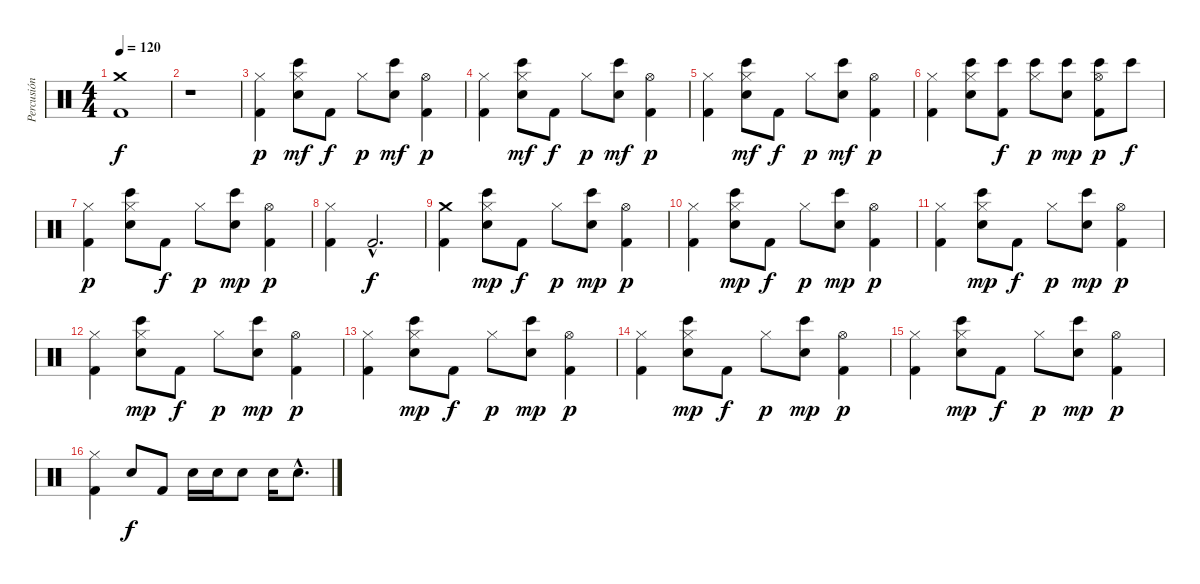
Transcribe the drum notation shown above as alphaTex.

\track ("Percusión" "Percusión") {instrument percussion}
\staff {score}
\articulation defaults
\ts (4 4)
\tempo 120
\clef neutral
\ks c
("Kick (hit) 2" "Crash medium (hit)").1{dy f} |
r.1 |
("Kick (hit) 2" "Hi-Hat (closed)").4{dy p} ("Electric Snare (hit)" "Hi-Hat (closed)" "Bongo High (hit)").8{dy mf} "Kick (hit) 2".8{dy f} "Hi-Hat (closed)".8{dy p} ("Electric Snare (hit)" "Bongo High (hit)").8{dy mf} ("Kick (hit) 2" "Hi-Hat (open)").4{dy p} |
("Kick (hit) 2" "Hi-Hat (closed)").4 ("Electric Snare (hit)" "Hi-Hat (closed)" "Bongo High (hit)").8{dy mf} "Kick (hit) 2".8{dy f} "Hi-Hat (closed)".8{dy p} ("Electric Snare (hit)" "Bongo High (hit)").8{dy mf} ("Kick (hit) 2" "Hi-Hat (open)").4{dy p} |
("Kick (hit) 2" "Hi-Hat (closed)").4 ("Electric Snare (hit)" "Hi-Hat (closed)" "Bongo High (hit)").8{dy mf} "Kick (hit) 2".8{dy f} "Hi-Hat (closed)".8{dy p} ("Electric Snare (hit)" "Bongo High (hit)").8{dy mf} ("Kick (hit) 2" "Hi-Hat (open)").4{dy p} |
("Kick (hit) 2" "Hi-Hat (closed)").4 ("Electric Snare (hit)" "Hi-Hat (closed)" "Bongo High (hit)").8 ("Kick (hit) 2" "Bongo High (hit)").8{dy f} ("Hi-Hat (closed)" "Bongo High (hit)").8{dy p} ("Electric Snare (hit)" "Bongo High (hit)").8{dy mp} ("Kick (hit) 2" "Hi-Hat (open)" "Bongo High (hit)").8{dy p} "Bongo High (hit)".8{dy f} |
("Kick (hit) 2" "Hi-Hat (closed)").4{dy p} ("Electric Snare (hit)" "Hi-Hat (closed)" "Bongo High (hit)").8 "Kick (hit) 2".8{dy f} "Hi-Hat (closed)".8{dy p} ("Electric Snare (hit)" "Bongo High (hit)").8{dy mp} ("Kick (hit) 2" "Hi-Hat (open)").4{dy p} |
("Kick (hit) 2" "Hi-Hat (closed)").4 "Kick (hit) 2"{hac}.2{d dy f} |
("Kick (hit) 2" "Crash medium (hit)").4 ("Electric Snare (hit)" "Hi-Hat (closed)" "Bongo High (hit)").8{dy mp} "Kick (hit) 2".8{dy f} "Hi-Hat (closed)".8{dy p} ("Electric Snare (hit)" "Bongo High (hit)").8{dy mp} ("Kick (hit) 2" "Hi-Hat (open)").4{dy p} |
("Kick (hit) 2" "Hi-Hat (closed)").4 ("Electric Snare (hit)" "Hi-Hat (closed)" "Bongo High (hit)").8{dy mp} "Kick (hit) 2".8{dy f} "Hi-Hat (closed)".8{dy p} ("Electric Snare (hit)" "Bongo High (hit)").8{dy mp} ("Kick (hit) 2" "Hi-Hat (open)").4{dy p} |
("Kick (hit) 2" "Hi-Hat (closed)").4 ("Electric Snare (hit)" "Hi-Hat (closed)" "Bongo High (hit)").8{dy mp} "Kick (hit) 2".8{dy f} "Hi-Hat (closed)".8{dy p} ("Electric Snare (hit)" "Bongo High (hit)").8{dy mp} ("Kick (hit) 2" "Hi-Hat (open)").4{dy p} |
("Kick (hit) 2" "Hi-Hat (closed)").4 ("Electric Snare (hit)" "Hi-Hat (closed)" "Bongo High (hit)").8{dy mp} "Kick (hit) 2".8{dy f} "Hi-Hat (closed)".8{dy p} ("Electric Snare (hit)" "Bongo High (hit)").8{dy mp} ("Kick (hit) 2" "Hi-Hat (open)").4{dy p} |
("Kick (hit) 2" "Hi-Hat (closed)").4 ("Electric Snare (hit)" "Hi-Hat (closed)" "Bongo High (hit)").8{dy mp} "Kick (hit) 2".8{dy f} "Hi-Hat (closed)".8{dy p} ("Electric Snare (hit)" "Bongo High (hit)").8{dy mp} ("Kick (hit) 2" "Hi-Hat (open)").4{dy p} |
("Kick (hit) 2" "Hi-Hat (closed)").4 ("Electric Snare (hit)" "Hi-Hat (closed)" "Bongo High (hit)").8{dy mp} "Kick (hit) 2".8{dy f} "Hi-Hat (closed)".8{dy p} ("Electric Snare (hit)" "Bongo High (hit)").8{dy mp} ("Kick (hit) 2" "Hi-Hat (open)").4{dy p} |
("Kick (hit) 2" "Hi-Hat (closed)").4 ("Electric Snare (hit)" "Hi-Hat (closed)" "Bongo High (hit)").8{dy mp} "Kick (hit) 2".8{dy f} "Hi-Hat (closed)".8{dy p} ("Electric Snare (hit)" "Bongo High (hit)").8{dy mp} ("Kick (hit) 2" "Hi-Hat (open)").4{dy p} |
("Kick (hit) 2" "Hi-Hat (closed)").4 "Snare (hit) 2".8{dy f} "Kick (hit) 2".8 "Snare (hit) 2".16 "Snare (hit) 2".16 "Snare (hit) 2".8 "Snare (hit) 2".16 "Snare (hit) 2"{hac}.8{d}
